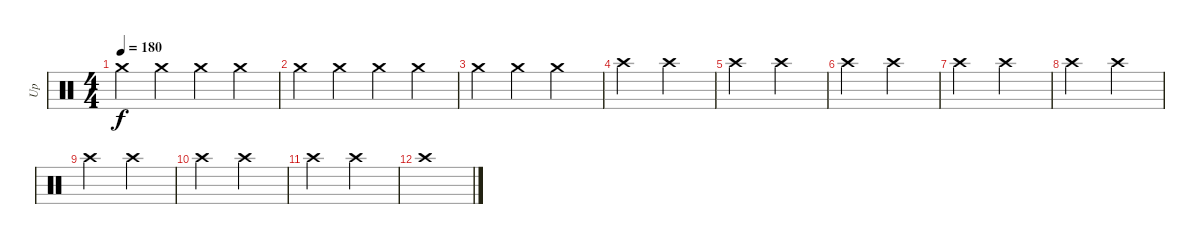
\track ("Up" "Up") {instrument percussion}
\staff {score}
\articulation defaults
\ts (4 4)
\tempo 180
\clef neutral
\ks c "Crash medium (hit)".4{dy f} "Crash medium (hit)".4 "Crash medium (hit)".4 "Crash medium (hit)".4
|
"Crash medium (hit)".4 "Crash medium (hit)".4 "Crash medium (hit)".4 "Crash medium (hit)".4 |
"Crash medium (hit)".4 "Crash medium (hit)".4 "Crash medium (hit)".2 |
"Crash high (hit)".2 "Crash high (hit)".2 |
"Crash high (hit)".2 "Crash high (hit)".2 |
"Crash high (hit)".2 "Crash high (hit)".2 |
"Crash high (hit)".2 "Crash high (hit)".2 |
"Crash high (hit)".2 "Crash high (hit)".2 |
"Crash high (hit)".2 "Crash high (hit)".2 |
"Crash high (hit)".2 "Crash high (hit)".2 |
"Crash high (hit)".2 "Crash high (hit)".2 |
"Crash high (hit)".1
